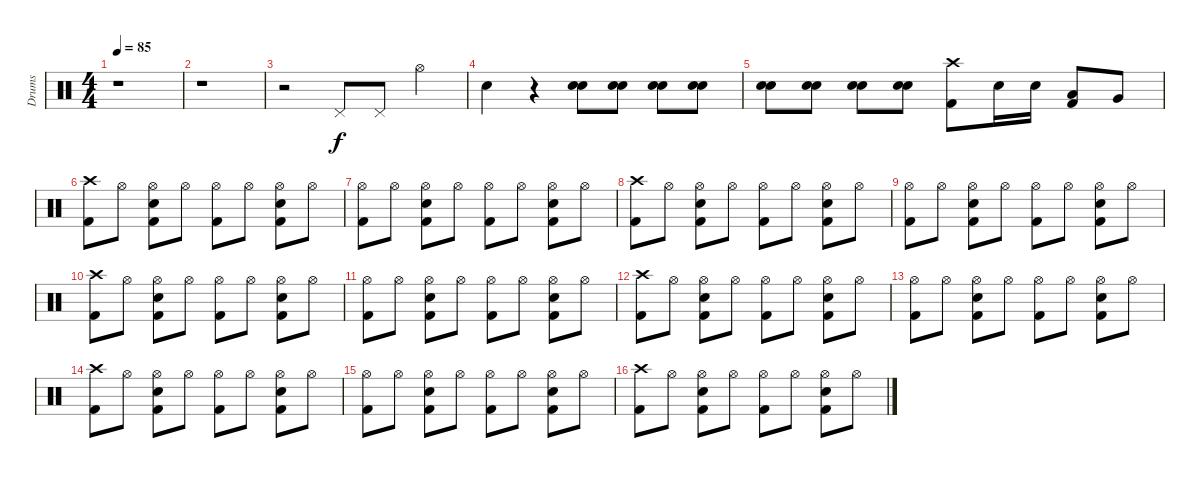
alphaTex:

\track ("Drums" "Drums") {instrument percussion}
\staff {score}
\articulation defaults
\ts (4 4)
\tempo 85
\clef neutral
\ks c
r.1{dy f} |
r.1 |
r.2 "Pedal Hi-Hat (hit)".8 "Pedal Hi-Hat (hit)".8 "Hi-Hat (open)".4 |
"Electric Snare (hit)".4 r.4 ("Snare (hit) 2" "Electric Snare (hit)").8 ("Snare (hit) 2" "Electric Snare (hit)").8 ("Snare (hit) 2" "Electric Snare (hit)").8 ("Snare (hit) 2" "Electric Snare (hit)").8 |
("Snare (hit) 2" "Electric Snare (hit)").8 ("Snare (hit) 2" "Electric Snare (hit)").8 ("Snare (hit) 2" "Electric Snare (hit)").8 ("Snare (hit) 2" "Electric Snare (hit)").8 ("Crash high (hit)" "Kick (hit) 2").8 "Electric Snare (hit)".16 "Electric Snare (hit)".16 ("Low Tom (hit)" "Kick (hit) 2").8 "Very Low Tom (hit)".8 |
("Crash high (hit)" "Kick (hit) 2").8 "Hi-Hat (open)".8 ("Hi-Hat (open)" "Electric Snare (hit)" "Kick (hit) 2").8 "Hi-Hat (open)".8 ("Hi-Hat (open)" "Kick (hit) 2").8 "Hi-Hat (open)".8 ("Hi-Hat (open)" "Electric Snare (hit)" "Kick (hit) 2").8 "Hi-Hat (open)".8 |
("Kick (hit) 2" "Hi-Hat (open)").8 "Hi-Hat (open)".8 ("Hi-Hat (open)" "Electric Snare (hit)" "Kick (hit) 2").8 "Hi-Hat (open)".8 ("Hi-Hat (open)" "Kick (hit) 2").8 "Hi-Hat (open)".8 ("Hi-Hat (open)" "Electric Snare (hit)" "Kick (hit) 2").8 "Hi-Hat (open)".8 |
("Crash high (hit)" "Kick (hit) 2").8 "Hi-Hat (open)".8 ("Hi-Hat (open)" "Electric Snare (hit)" "Kick (hit) 2").8 "Hi-Hat (open)".8 ("Hi-Hat (open)" "Kick (hit) 2").8 "Hi-Hat (open)".8 ("Hi-Hat (open)" "Electric Snare (hit)" "Kick (hit) 2").8 "Hi-Hat (open)".8 |
("Kick (hit) 2" "Hi-Hat (open)").8 "Hi-Hat (open)".8 ("Hi-Hat (open)" "Electric Snare (hit)" "Kick (hit) 2").8 "Hi-Hat (open)".8 ("Hi-Hat (open)" "Kick (hit) 2").8 "Hi-Hat (open)".8 ("Hi-Hat (open)" "Electric Snare (hit)" "Kick (hit) 2").8 "Hi-Hat (open)".8 |
("Crash high (hit)" "Kick (hit) 2").8 "Hi-Hat (open)".8 ("Hi-Hat (open)" "Electric Snare (hit)" "Kick (hit) 2").8 "Hi-Hat (open)".8 ("Hi-Hat (open)" "Kick (hit) 2").8 "Hi-Hat (open)".8 ("Hi-Hat (open)" "Electric Snare (hit)" "Kick (hit) 2").8 "Hi-Hat (open)".8 |
("Kick (hit) 2" "Hi-Hat (open)").8 "Hi-Hat (open)".8 ("Hi-Hat (open)" "Electric Snare (hit)" "Kick (hit) 2").8 "Hi-Hat (open)".8 ("Hi-Hat (open)" "Kick (hit) 2").8 "Hi-Hat (open)".8 ("Hi-Hat (open)" "Electric Snare (hit)" "Kick (hit) 2").8 "Hi-Hat (open)".8 |
("Crash high (hit)" "Kick (hit) 2").8 "Hi-Hat (open)".8 ("Hi-Hat (open)" "Electric Snare (hit)" "Kick (hit) 2").8 "Hi-Hat (open)".8 ("Hi-Hat (open)" "Kick (hit) 2").8 "Hi-Hat (open)".8 ("Hi-Hat (open)" "Electric Snare (hit)" "Kick (hit) 2").8 "Hi-Hat (open)".8 |
("Kick (hit) 2" "Hi-Hat (open)").8 "Hi-Hat (open)".8 ("Hi-Hat (open)" "Electric Snare (hit)" "Kick (hit) 2").8 "Hi-Hat (open)".8 ("Hi-Hat (open)" "Kick (hit) 2").8 "Hi-Hat (open)".8 ("Hi-Hat (open)" "Electric Snare (hit)" "Kick (hit) 2").8 "Hi-Hat (open)".8 |
("Crash high (hit)" "Kick (hit) 2").8 "Hi-Hat (open)".8 ("Hi-Hat (open)" "Electric Snare (hit)" "Kick (hit) 2").8 "Hi-Hat (open)".8 ("Hi-Hat (open)" "Kick (hit) 2").8 "Hi-Hat (open)".8 ("Hi-Hat (open)" "Electric Snare (hit)" "Kick (hit) 2").8 "Hi-Hat (open)".8 |
("Kick (hit) 2" "Hi-Hat (open)").8 "Hi-Hat (open)".8 ("Hi-Hat (open)" "Electric Snare (hit)" "Kick (hit) 2").8 "Hi-Hat (open)".8 ("Hi-Hat (open)" "Kick (hit) 2").8 "Hi-Hat (open)".8 ("Hi-Hat (open)" "Electric Snare (hit)" "Kick (hit) 2").8 "Hi-Hat (open)".8 |
("Crash high (hit)" "Kick (hit) 2").8 "Hi-Hat (open)".8 ("Hi-Hat (open)" "Electric Snare (hit)" "Kick (hit) 2").8 "Hi-Hat (open)".8 ("Hi-Hat (open)" "Kick (hit) 2").8 "Hi-Hat (open)".8 ("Hi-Hat (open)" "Electric Snare (hit)" "Kick (hit) 2").8 "Hi-Hat (open)".8
